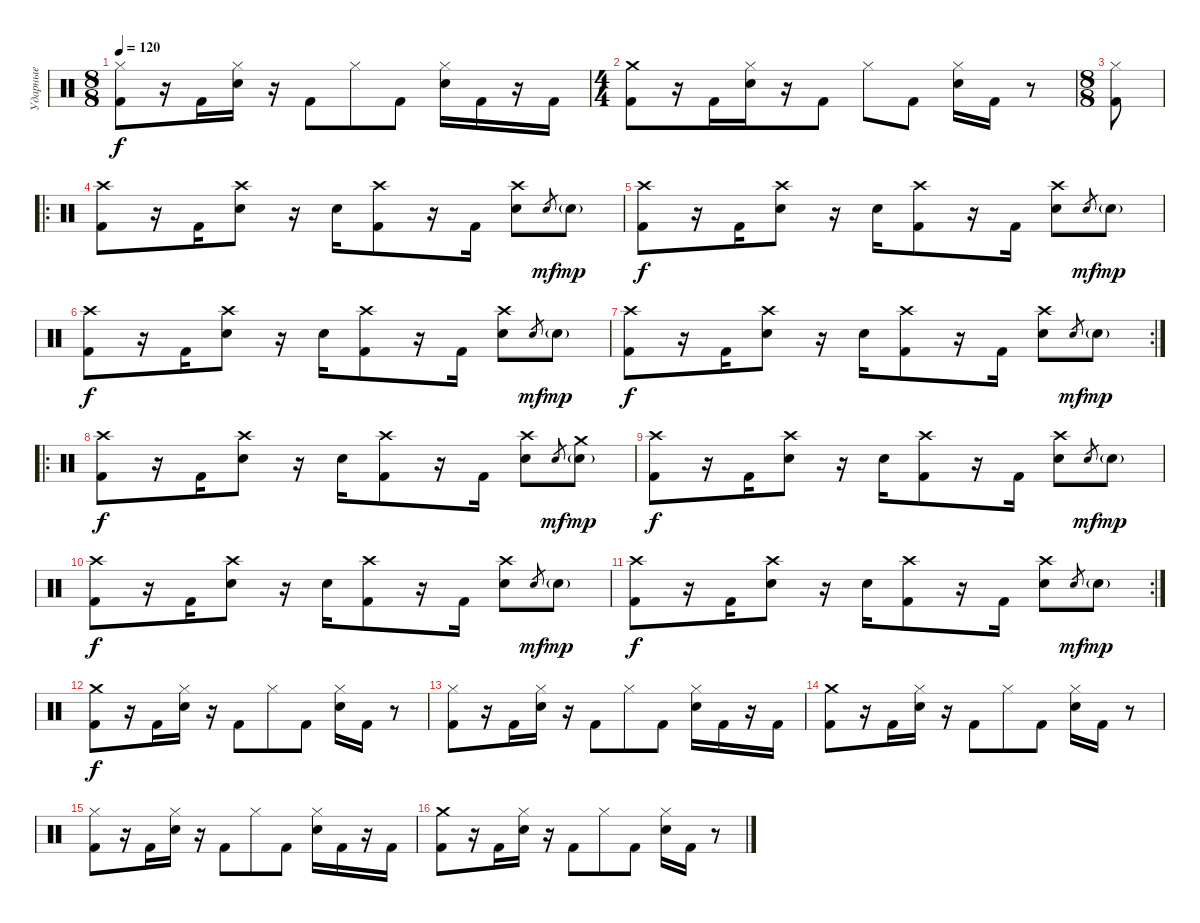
\track ("Ударные" "Ударные") {instrument percussion}
\staff {score}
\articulation defaults
\ts (8 8)
\tempo 120
\clef neutral
\ks c
("Hi-Hat (closed)" "Kick (hit) 2").8{dy f} r.16 "Kick (hit) 2".16{beam merge} ("Hi-Hat (closed)" "Electric Snare (hit)").16 r.16 "Kick (hit) 2".8 "Hi-Hat (closed)".8 "Kick (hit) 2".8 ("Hi-Hat (closed)" "Electric Snare (hit)").16 "Kick (hit) 2".16 r.16 "Kick (hit) 2".16 |
\ts (4 4)
("Crash medium (hit)" "Kick (hit) 2").8 r.16 "Kick (hit) 2".16{beam merge} ("Hi-Hat (closed)" "Electric Snare (hit)").16 r.16 "Kick (hit) 2".8 "Hi-Hat (closed)".8 "Kick (hit) 2".8 ("Hi-Hat (closed)" "Electric Snare (hit)").16 "Kick (hit) 2".16 r.8 |
\ts (8 8)
("Hi-Hat (closed)" "Kick (hit) 2").8 |
\ro
("Crash high (hit)" "Kick (hit) 2").8 r.16 "Kick (hit) 2".16 ("Crash high (hit)" "Electric Snare (hit)").8 r.16 "Electric Snare (hit)".16 ("Crash high (hit)" "Kick (hit) 2").8 r.16 "Kick (hit) 2".16 ("Crash high (hit)" "Electric Snare (hit)").8 "Electric Snare (hit)".8{gr dy mf} "Electric Snare (hit)"{g}.8{dy mp} |
("Crash high (hit)" "Kick (hit) 2").8{dy f} r.16 "Kick (hit) 2".16 ("Crash high (hit)" "Electric Snare (hit)").8 r.16 "Electric Snare (hit)".16 ("Crash high (hit)" "Kick (hit) 2").8 r.16 "Kick (hit) 2".16 ("Crash high (hit)" "Electric Snare (hit)").8 "Electric Snare (hit)".8{gr dy mf} "Electric Snare (hit)"{g}.8{dy mp} |
("Crash high (hit)" "Kick (hit) 2").8{dy f} r.16 "Kick (hit) 2".16 ("Crash high (hit)" "Electric Snare (hit)").8 r.16 "Electric Snare (hit)".16 ("Crash high (hit)" "Kick (hit) 2").8 r.16 "Kick (hit) 2".16 ("Crash high (hit)" "Electric Snare (hit)").8 "Electric Snare (hit)".8{gr dy mf} "Electric Snare (hit)"{g}.8{dy mp} |
\rc 2
("Crash high (hit)" "Kick (hit) 2").8{dy f} r.16 "Kick (hit) 2".16 ("Crash high (hit)" "Electric Snare (hit)").8 r.16 "Electric Snare (hit)".16 ("Crash high (hit)" "Kick (hit) 2").8 r.16 "Kick (hit) 2".16 ("Crash high (hit)" "Electric Snare (hit)").8 "Electric Snare (hit)".8{gr dy mf} "Electric Snare (hit)"{g}.8{dy mp} |
\ro
("Crash high (hit)" "Kick (hit) 2").8{dy f} r.16 "Kick (hit) 2".16 ("Crash high (hit)" "Electric Snare (hit)").8 r.16 "Electric Snare (hit)".16 ("Crash high (hit)" "Kick (hit) 2").8 r.16 "Kick (hit) 2".16 ("Crash high (hit)" "Electric Snare (hit)").8 "Electric Snare (hit)".8{gr dy mf} ("Crash medium (hit)" "Electric Snare (hit)"{g}).8{dy mp} |
("Crash high (hit)" "Kick (hit) 2").8{dy f} r.16 "Kick (hit) 2".16 ("Crash high (hit)" "Electric Snare (hit)").8 r.16 "Electric Snare (hit)".16 ("Crash high (hit)" "Kick (hit) 2").8 r.16 "Kick (hit) 2".16 ("Crash high (hit)" "Electric Snare (hit)").8 "Electric Snare (hit)".8{gr dy mf} "Electric Snare (hit)"{g}.8{dy mp} |
("Crash high (hit)" "Kick (hit) 2").8{dy f} r.16 "Kick (hit) 2".16 ("Crash high (hit)" "Electric Snare (hit)").8 r.16 "Electric Snare (hit)".16 ("Crash high (hit)" "Kick (hit) 2").8 r.16 "Kick (hit) 2".16 ("Crash high (hit)" "Electric Snare (hit)").8 "Electric Snare (hit)".8{gr dy mf} "Electric Snare (hit)"{g}.8{dy mp} |
\rc 2
("Crash high (hit)" "Kick (hit) 2").8{dy f} r.16 "Kick (hit) 2".16 ("Crash high (hit)" "Electric Snare (hit)").8 r.16 "Electric Snare (hit)".16 ("Crash high (hit)" "Kick (hit) 2").8 r.16 "Kick (hit) 2".16 ("Crash high (hit)" "Electric Snare (hit)").8 "Electric Snare (hit)".8{gr dy mf} "Electric Snare (hit)"{g}.8{dy mp} |
("Crash medium (hit)" "Kick (hit) 2").8{dy f} r.16 "Kick (hit) 2".16{beam merge} ("Hi-Hat (closed)" "Electric Snare (hit)").16 r.16 "Kick (hit) 2".8 "Hi-Hat (closed)".8 "Kick (hit) 2".8 ("Hi-Hat (closed)" "Electric Snare (hit)").16 "Kick (hit) 2".16 r.8 |
("Hi-Hat (closed)" "Kick (hit) 2").8 r.16 "Kick (hit) 2".16{beam merge} ("Hi-Hat (closed)" "Electric Snare (hit)").16 r.16 "Kick (hit) 2".8 "Hi-Hat (closed)".8 "Kick (hit) 2".8 ("Hi-Hat (closed)" "Electric Snare (hit)").16 "Kick (hit) 2".16 r.16 "Kick (hit) 2".16 |
("Crash medium (hit)" "Kick (hit) 2").8 r.16 "Kick (hit) 2".16{beam merge} ("Hi-Hat (closed)" "Electric Snare (hit)").16 r.16 "Kick (hit) 2".8 "Hi-Hat (closed)".8 "Kick (hit) 2".8 ("Hi-Hat (closed)" "Electric Snare (hit)").16 "Kick (hit) 2".16 r.8 |
("Hi-Hat (closed)" "Kick (hit) 2").8 r.16 "Kick (hit) 2".16{beam merge} ("Hi-Hat (closed)" "Electric Snare (hit)").16 r.16 "Kick (hit) 2".8 "Hi-Hat (closed)".8 "Kick (hit) 2".8 ("Hi-Hat (closed)" "Electric Snare (hit)").16 "Kick (hit) 2".16 r.16 "Kick (hit) 2".16 |
("Crash medium (hit)" "Kick (hit) 2").8 r.16 "Kick (hit) 2".16{beam merge} ("Hi-Hat (closed)" "Electric Snare (hit)").16 r.16 "Kick (hit) 2".8 "Hi-Hat (closed)".8 "Kick (hit) 2".8 ("Hi-Hat (closed)" "Electric Snare (hit)").16 "Kick (hit) 2".16 r.8
